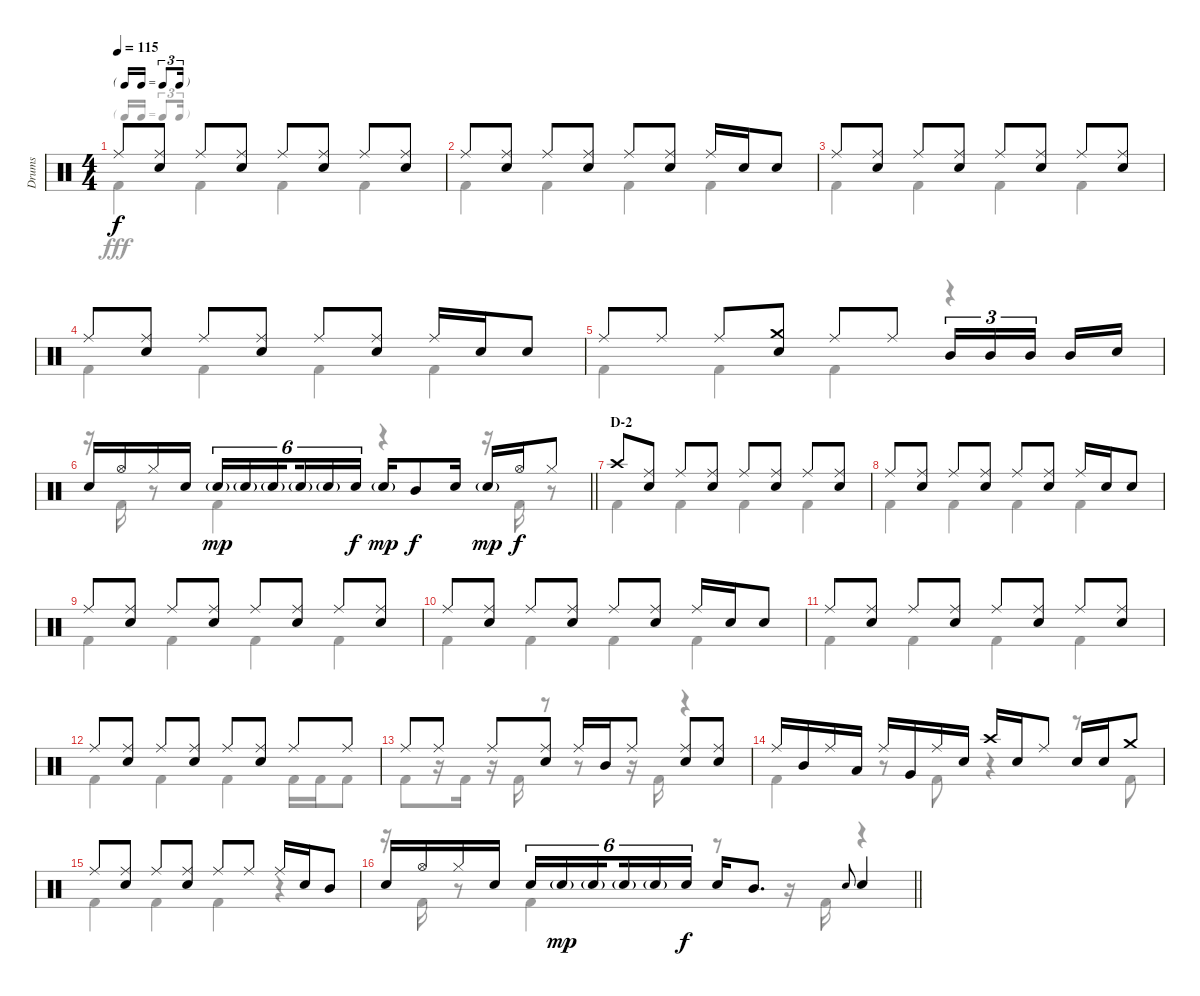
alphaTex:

\track ("Drums" "Drums") {instrument percussion}
\staff {score}
\articulation defaults
\voice
\ts (4 4)
\tf triplet16th
\tempo 115
\clef neutral
\ks c "Ride (middle)".8{dy f}
("Ride (middle)" "Snare (hit) 2").8 "Ride (middle)".8 ("Ride (middle)" "Snare (hit) 2").8 "Ride (middle)".8 ("Ride (middle)" "Snare (hit) 2").8 "Ride (middle)".8 ("Ride (middle)" "Snare (hit) 2").8 |
"Ride (middle)".8 ("Ride (middle)" "Snare (hit) 2").8 "Ride (middle)".8 ("Ride (middle)" "Snare (hit) 2").8 "Ride (middle)".8 ("Ride (middle)" "Snare (hit) 2").8 "Ride (middle)".16 "Snare (hit) 2".16 "Snare (hit) 2".8 |
"Ride (middle)".8 ("Ride (middle)" "Snare (hit) 2").8 "Ride (middle)".8 ("Ride (middle)" "Snare (hit) 2").8 "Ride (middle)".8 ("Ride (middle)" "Snare (hit) 2").8 "Ride (middle)".8 ("Ride (middle)" "Snare (hit) 2").8 |
"Ride (middle)".8 ("Ride (middle)" "Snare (hit) 2").8 "Ride (middle)".8 ("Ride (middle)" "Snare (hit) 2").8 "Ride (middle)".8 ("Ride (middle)" "Snare (hit) 2").8 "Ride (middle)".16 "Snare (hit) 2".16 "Snare (hit) 2".8 |
"Ride (middle)".8 "Ride (middle)".8 "Ride (middle)".8 ("Crash medium (hit)" "Snare (hit) 2").8 "Ride (middle)".8 "Ride (middle)".8 "Mid Tom (hit)".16{tu (3 2)} "Mid Tom (hit)".16{tu (3 2)} "Mid Tom (hit)".16{tu (3 2) beam splitsecondary} "Mid Tom (hit)".16 "Snare (hit) 2".16 |
\barLineRight lightlight "Snare (hit) 2".16 "Hi-Hat (open)".16 "Hi-Hat (closed)".16 "Snare (hit) 2".16 "Snare (hit) 2"{g}.16{tu (6 4) dy mp} "Snare (hit) 2"{g}.16{tu (6 4)} "Snare (hit) 2"{g}.16{tu (6 4) beam splitsecondary} "Snare (hit) 2"{g}.16{tu (6 4)} "Snare (hit) 2"{g}.16{tu (6 4)} "Snare (hit) 2".16{tu (6 4) dy f} "Snare (hit) 2"{g}.16{dy mp} "Mid Tom (hit)".8{dy f} "Snare (hit) 2".16 "Snare (hit) 2"{g}.16{dy mp} "Hi-Hat (open)".16{dy f} "Hi-Hat (closed)".8
|
\section ("" "D-2")
"Crash high (hit)".8 ("Ride (middle)" "Snare (hit) 2").8 "Ride (middle)".8 ("Ride (middle)" "Snare (hit) 2").8 "Ride (middle)".8 ("Ride (middle)" "Snare (hit) 2").8 "Ride (middle)".8 ("Ride (middle)" "Snare (hit) 2").8 |
"Ride (middle)".8 ("Ride (middle)" "Snare (hit) 2").8 "Ride (middle)".8 ("Ride (middle)" "Snare (hit) 2").8 "Ride (middle)".8 ("Ride (middle)" "Snare (hit) 2").8 "Ride (middle)".16 "Snare (hit) 2".16 "Snare (hit) 2".8 |
"Ride (middle)".8 ("Ride (middle)" "Snare (hit) 2").8 "Ride (middle)".8 ("Ride (middle)" "Snare (hit) 2").8 "Ride (middle)".8 ("Ride (middle)" "Snare (hit) 2").8 "Ride (middle)".8 ("Ride (middle)" "Snare (hit) 2").8 |
"Ride (middle)".8 ("Ride (middle)" "Snare (hit) 2").8 "Ride (middle)".8 ("Ride (middle)" "Snare (hit) 2").8 "Ride (middle)".8 ("Ride (middle)" "Snare (hit) 2").8 "Ride (middle)".16 "Snare (hit) 2".16 "Snare (hit) 2".8 |
"Ride (middle)".8 ("Ride (middle)" "Snare (hit) 2").8 "Ride (middle)".8 ("Ride (middle)" "Snare (hit) 2").8 "Ride (middle)".8 ("Ride (middle)" "Snare (hit) 2").8 "Ride (middle)".8 ("Ride (middle)" "Snare (hit) 2").8 |
"Ride (middle)".8 ("Ride (middle)" "Snare (hit) 2").8 "Ride (middle)".8 ("Ride (middle)" "Snare (hit) 2").8 "Ride (middle)".8 ("Ride (middle)" "Snare (hit) 2").8 "Ride (middle)".8 "Ride (middle)".8 |
"Ride (middle)".8 "Ride (middle)".8 "Ride (middle)".8 ("Ride (middle)" "Snare (hit) 2").8 "Ride (middle)".16 "Mid Tom (hit)".16 "Ride (middle)".8 ("Ride (middle)" "Snare (hit) 2").8 ("Ride (middle)" "Snare (hit) 2").8 |
"Ride (middle)".16 "Mid Tom (hit)".16 "Ride (middle)".16 "Low Tom (hit)".16 "Ride (middle)".16 "Very Low Tom (hit)".16 "Ride (middle)".16 "Snare (hit) 2".16 "Crash high (hit)".16 "Snare (hit) 2".16 "Ride (middle)".8 "Snare (hit) 2".16 "Snare (hit) 2".16 "Crash medium (hit)".8 |
"Ride (middle)".8 ("Ride (middle)" "Snare (hit) 2").8 "Ride (middle)".8 ("Ride (middle)" "Snare (hit) 2").8 "Ride (middle)".8 "Ride (middle)".8 "Ride (middle)".16 "Snare (hit) 2".16 "Mid Tom (hit)".8 |
\barLineRight lightlight "Snare (hit) 2".16 "Hi-Hat (open)".16 "Hi-Hat (closed)".16 "Snare (hit) 2".16 "Snare (hit) 2".16{tu (6 4)} "Snare (hit) 2"{g}.16{tu (6 4) dy mp} "Snare (hit) 2"{g}.16{tu (6 4) beam splitsecondary} "Snare (hit) 2"{g}.16{tu (6 4)} "Snare (hit) 2"{g}.16{tu (6 4)} "Snare (hit) 2".16{tu (6 4) dy f} "Snare (hit) 2".16 "Mid Tom (hit)".8{d} "Snare (hit) 2".8{gr onbeat} "Snare (hit) 2".4
\voice
\clef neutral
\ottava regular
\simile none
\ks c "Kick (hit) 2".4{dy fff} "Kick (hit) 2".4 "Kick (hit) 2".4 "Kick (hit) 2".4
|
"Kick (hit) 2".4 "Kick (hit) 2".4 "Kick (hit) 2".4 "Kick (hit) 2".4 |
"Kick (hit) 2".4 "Kick (hit) 2".4 "Kick (hit) 2".4 "Kick (hit) 2".4 |
"Kick (hit) 2".4 "Kick (hit) 2".4 "Kick (hit) 2".4 "Kick (hit) 2".4 |
"Kick (hit) 2".4 "Kick (hit) 2".4 "Kick (hit) 2".4 r.4 |
\barLineRight lightlight
r.16 "Kick (hit) 2".16 r.8 "Kick (hit) 2".4 r.4 r.16 "Kick (hit) 2".16 r.8 |
"Kick (hit) 2".4 "Kick (hit) 2".4 "Kick (hit) 2".4 "Kick (hit) 2".4 |
"Kick (hit) 2".4 "Kick (hit) 2".4 "Kick (hit) 2".4 "Kick (hit) 2".4 |
"Kick (hit) 2".4 "Kick (hit) 2".4 "Kick (hit) 2".4 "Kick (hit) 2".4 |
"Kick (hit) 2".4 "Kick (hit) 2".4 "Kick (hit) 2".4 "Kick (hit) 2".4 |
"Kick (hit) 2".4 "Kick (hit) 2".4 "Kick (hit) 2".4 "Kick (hit) 2".4 |
"Kick (hit) 2".4 "Kick (hit) 2".4 "Kick (hit) 2".4 "Kick (hit) 2".16 "Kick (hit) 2".16 "Kick (hit) 2".8 |
"Kick (hit) 2".8 r.16 "Kick (hit) 2".16 r.16 "Kick (hit) 2".16 r.8 r.8 r.16 "Kick (hit) 2".16 r.4 |
"Kick (hit) 2".4 r.8 "Kick (hit) 2".8 r.4 r.8 "Kick (hit) 2".8 |
"Kick (hit) 2".4 "Kick (hit) 2".4 "Kick (hit) 2".4 r.4 |
\barLineRight lightlight
r.16 "Kick (hit) 2".16 r.8 "Kick (hit) 2".4 r.8 r.16 "Kick (hit) 2".16 r.4
